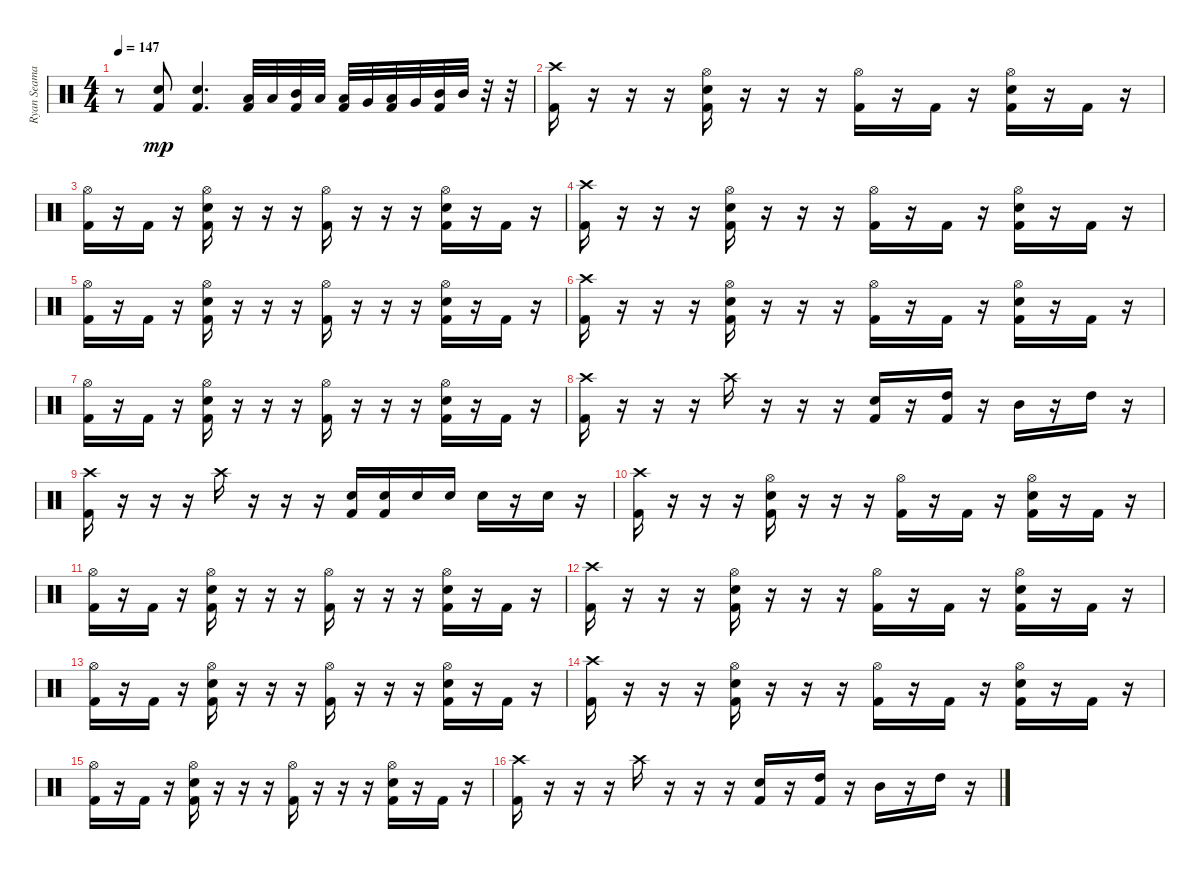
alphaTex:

\track ("Ryan Seaman - Drum" "Ryan Seama") {instrument percussion}
\staff {score}
\articulation defaults
\ts (4 4)
\tempo 147
\clef neutral
\ks c
r.8{dy mp} ("Electric Snare (hit)" "Kick (hit) 2").8 ("Electric Snare (hit)" "Kick (hit) 2").4{d} ("Low Tom (hit)" "Kick (hit) 2").32 "Low Tom (hit)".32 ("Mid Tom (hit)" "Kick (hit) 2").32 "Low Floor Tom (hit)".32 ("Low Floor Tom (hit)" "Kick (hit) 2").32 "Very Low Tom (hit)".32 ("Low Floor Tom (hit)" "Kick (hit) 2").32 "Very Low Tom (hit)".32 ("Mid Tom (hit)" "Kick (hit) 2").32 "Mid Tom (hit)".32 r.32 r.32 |
("Crash high (hit)" "Kick (hit) 2").16 r.16 r.16 r.16 ("Hi-Hat (open)" "Electric Snare (hit)" "Kick (hit) 2").16 r.16 r.16 r.16 ("Hi-Hat (open)" "Kick (hit) 2").16 r.16 "Kick (hit) 2".16 r.16 ("Hi-Hat (open)" "Electric Snare (hit)" "Kick (hit) 2").16 r.16 "Kick (hit) 2".16 r.16 |
("Hi-Hat (open)" "Kick (hit) 2").16 r.16 "Kick (hit) 2".16 r.16 ("Hi-Hat (open)" "Electric Snare (hit)" "Kick (hit) 2").16 r.16 r.16 r.16 ("Hi-Hat (open)" "Kick (hit) 2").16 r.16 r.16 r.16 ("Hi-Hat (open)" "Electric Snare (hit)" "Kick (hit) 2").16 r.16 "Kick (hit) 2".16 r.16 |
("Crash high (hit)" "Kick (hit) 2").16 r.16 r.16 r.16 ("Hi-Hat (open)" "Electric Snare (hit)" "Kick (hit) 2").16 r.16 r.16 r.16 ("Hi-Hat (open)" "Kick (hit) 2").16 r.16 "Kick (hit) 2".16 r.16 ("Hi-Hat (open)" "Electric Snare (hit)" "Kick (hit) 2").16 r.16 "Kick (hit) 2".16 r.16 |
("Hi-Hat (open)" "Kick (hit) 2").16 r.16 "Kick (hit) 2".16 r.16 ("Hi-Hat (open)" "Electric Snare (hit)" "Kick (hit) 2").16 r.16 r.16 r.16 ("Hi-Hat (open)" "Kick (hit) 2").16 r.16 r.16 r.16 ("Hi-Hat (open)" "Electric Snare (hit)" "Kick (hit) 2").16 r.16 "Kick (hit) 2".16 r.16 |
("Crash high (hit)" "Kick (hit) 2").16 r.16 r.16 r.16 ("Hi-Hat (open)" "Electric Snare (hit)" "Kick (hit) 2").16 r.16 r.16 r.16 ("Hi-Hat (open)" "Kick (hit) 2").16 r.16 "Kick (hit) 2".16 r.16 ("Hi-Hat (open)" "Electric Snare (hit)" "Kick (hit) 2").16 r.16 "Kick (hit) 2".16 r.16 |
("Hi-Hat (open)" "Kick (hit) 2").16 r.16 "Kick (hit) 2".16 r.16 ("Hi-Hat (open)" "Electric Snare (hit)" "Kick (hit) 2").16 r.16 r.16 r.16 ("Hi-Hat (open)" "Kick (hit) 2").16 r.16 r.16 r.16 ("Hi-Hat (open)" "Electric Snare (hit)" "Kick (hit) 2").16 r.16 "Kick (hit) 2".16 r.16 |
("Crash high (hit)" "Kick (hit) 2").16 r.16 r.16 r.16 "Crash high (hit)".16 r.16 r.16 r.16 ("Electric Snare (hit)" "Kick (hit) 2").16 r.16 ("High Tom (hit)" "Kick (hit) 2").16 r.16 "Mid Tom (hit)".16 r.16 "High Tom (hit)".16 r.16 |
("Crash high (hit)" "Kick (hit) 2").16 r.16 r.16 r.16 "Crash high (hit)".16 r.16 r.16 r.16 ("Electric Snare (hit)" "Kick (hit) 2").16 ("Electric Snare (hit)" "Kick (hit) 2").16 "Electric Snare (hit)".16 "Electric Snare (hit)".16 "Electric Snare (hit)".16 r.16 "Electric Snare (hit)".16 r.16 |
("Crash high (hit)" "Kick (hit) 2").16 r.16 r.16 r.16 ("Hi-Hat (open)" "Electric Snare (hit)" "Kick (hit) 2").16 r.16 r.16 r.16 ("Hi-Hat (open)" "Kick (hit) 2").16 r.16 "Kick (hit) 2".16 r.16 ("Hi-Hat (open)" "Electric Snare (hit)" "Kick (hit) 2").16 r.16 "Kick (hit) 2".16 r.16 |
("Hi-Hat (open)" "Kick (hit) 2").16 r.16 "Kick (hit) 2".16 r.16 ("Hi-Hat (open)" "Electric Snare (hit)" "Kick (hit) 2").16 r.16 r.16 r.16 ("Hi-Hat (open)" "Kick (hit) 2").16 r.16 r.16 r.16 ("Hi-Hat (open)" "Electric Snare (hit)" "Kick (hit) 2").16 r.16 "Kick (hit) 2".16 r.16 |
("Crash high (hit)" "Kick (hit) 2").16 r.16 r.16 r.16 ("Hi-Hat (open)" "Electric Snare (hit)" "Kick (hit) 2").16 r.16 r.16 r.16 ("Hi-Hat (open)" "Kick (hit) 2").16 r.16 "Kick (hit) 2".16 r.16 ("Hi-Hat (open)" "Electric Snare (hit)" "Kick (hit) 2").16 r.16 "Kick (hit) 2".16 r.16 |
("Hi-Hat (open)" "Kick (hit) 2").16 r.16 "Kick (hit) 2".16 r.16 ("Hi-Hat (open)" "Electric Snare (hit)" "Kick (hit) 2").16 r.16 r.16 r.16 ("Hi-Hat (open)" "Kick (hit) 2").16 r.16 r.16 r.16 ("Hi-Hat (open)" "Electric Snare (hit)" "Kick (hit) 2").16 r.16 "Kick (hit) 2".16 r.16 |
("Crash high (hit)" "Kick (hit) 2").16 r.16 r.16 r.16 ("Hi-Hat (open)" "Electric Snare (hit)" "Kick (hit) 2").16 r.16 r.16 r.16 ("Hi-Hat (open)" "Kick (hit) 2").16 r.16 "Kick (hit) 2".16 r.16 ("Hi-Hat (open)" "Electric Snare (hit)" "Kick (hit) 2").16 r.16 "Kick (hit) 2".16 r.16 |
("Hi-Hat (open)" "Kick (hit) 2").16 r.16 "Kick (hit) 2".16 r.16 ("Hi-Hat (open)" "Electric Snare (hit)" "Kick (hit) 2").16 r.16 r.16 r.16 ("Hi-Hat (open)" "Kick (hit) 2").16 r.16 r.16 r.16 ("Hi-Hat (open)" "Electric Snare (hit)" "Kick (hit) 2").16 r.16 "Kick (hit) 2".16 r.16 |
("Crash high (hit)" "Kick (hit) 2").16 r.16 r.16 r.16 "Crash high (hit)".16 r.16 r.16 r.16 ("Electric Snare (hit)" "Kick (hit) 2").16 r.16 ("High Tom (hit)" "Kick (hit) 2").16 r.16 "Mid Tom (hit)".16 r.16 "High Tom (hit)".16 r.16
